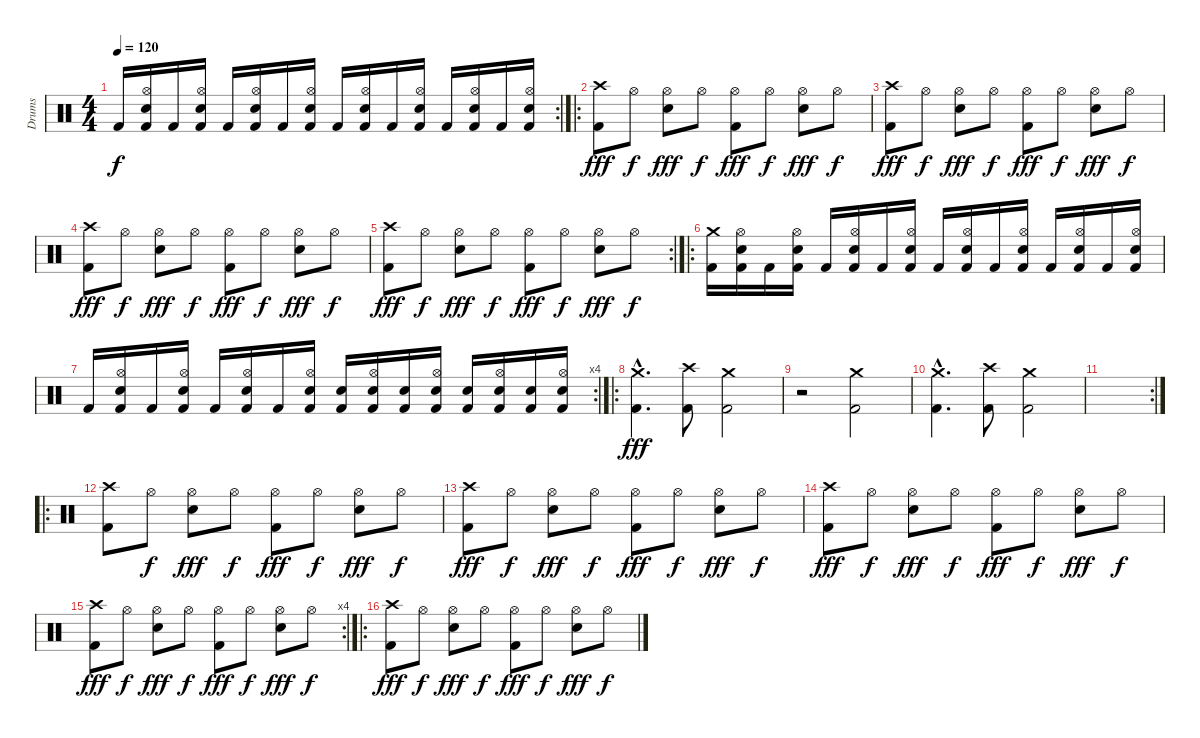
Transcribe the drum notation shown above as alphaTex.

\track ("Drums" "Drums") {instrument percussion}
\staff {score}
\articulation defaults
\rc 2
\ts (4 4)
\tempo 120
\clef neutral
\ks c "Kick (hit) 2".16{dy f}
("Hi-Hat (open)" "Electric Snare (hit)" "Kick (hit) 2").16 "Kick (hit) 2".16 ("Hi-Hat (open)" "Electric Snare (hit)" "Kick (hit) 2").16 "Kick (hit) 2".16 ("Hi-Hat (open)" "Electric Snare (hit)" "Kick (hit) 2").16 "Kick (hit) 2".16 ("Hi-Hat (open)" "Electric Snare (hit)" "Kick (hit) 2").16 "Kick (hit) 2".16 ("Hi-Hat (open)" "Electric Snare (hit)" "Kick (hit) 2").16 "Kick (hit) 2".16 ("Hi-Hat (open)" "Electric Snare (hit)" "Kick (hit) 2").16 "Kick (hit) 2".16 ("Hi-Hat (open)" "Electric Snare (hit)" "Kick (hit) 2").16 "Kick (hit) 2".16 ("Hi-Hat (open)" "Electric Snare (hit)" "Kick (hit) 2").16 |
\ro
("Crash high (hit)" "Kick (hit) 2").8{dy fff} "Hi-Hat (open)".8{dy f} ("Hi-Hat (open)" "Electric Snare (hit)").8{dy fff} "Hi-Hat (open)".8{dy f} ("Hi-Hat (open)" "Kick (hit) 2").8{dy fff} "Hi-Hat (open)".8{dy f} ("Hi-Hat (open)" "Electric Snare (hit)").8{dy fff} "Hi-Hat (open)".8{dy f} |
("Crash high (hit)" "Kick (hit) 2").8{dy fff} "Hi-Hat (open)".8{dy f} ("Hi-Hat (open)" "Electric Snare (hit)").8{dy fff} "Hi-Hat (open)".8{dy f} ("Hi-Hat (open)" "Kick (hit) 2").8{dy fff} "Hi-Hat (open)".8{dy f} ("Hi-Hat (open)" "Electric Snare (hit)").8{dy fff} "Hi-Hat (open)".8{dy f} |
("Crash high (hit)" "Kick (hit) 2").8{dy fff} "Hi-Hat (open)".8{dy f} ("Hi-Hat (open)" "Electric Snare (hit)").8{dy fff} "Hi-Hat (open)".8{dy f} ("Hi-Hat (open)" "Kick (hit) 2").8{dy fff} "Hi-Hat (open)".8{dy f} ("Hi-Hat (open)" "Electric Snare (hit)").8{dy fff} "Hi-Hat (open)".8{dy f} |
\rc 2
("Crash high (hit)" "Kick (hit) 2").8{dy fff} "Hi-Hat (open)".8{dy f} ("Hi-Hat (open)" "Electric Snare (hit)").8{dy fff} "Hi-Hat (open)".8{dy f} ("Hi-Hat (open)" "Kick (hit) 2").8{dy fff} "Hi-Hat (open)".8{dy f} ("Hi-Hat (open)" "Electric Snare (hit)").8{dy fff} "Hi-Hat (open)".8{dy f} |
\ro
("Crash medium (hit)" "Kick (hit) 2").16 ("Hi-Hat (open)" "Electric Snare (hit)" "Kick (hit) 2").16 "Kick (hit) 2".16 ("Hi-Hat (open)" "Electric Snare (hit)" "Kick (hit) 2").16 "Kick (hit) 2".16 ("Hi-Hat (open)" "Electric Snare (hit)" "Kick (hit) 2").16 "Kick (hit) 2".16 ("Hi-Hat (open)" "Electric Snare (hit)" "Kick (hit) 2").16 "Kick (hit) 2".16 ("Hi-Hat (open)" "Electric Snare (hit)" "Kick (hit) 2").16 "Kick (hit) 2".16 ("Hi-Hat (open)" "Electric Snare (hit)" "Kick (hit) 2").16 "Kick (hit) 2".16 ("Hi-Hat (open)" "Electric Snare (hit)" "Kick (hit) 2").16 "Kick (hit) 2".16 ("Hi-Hat (open)" "Electric Snare (hit)" "Kick (hit) 2").16 |
\rc 4 "Kick (hit) 2".16
("Hi-Hat (open)" "Electric Snare (hit)" "Kick (hit) 2").16 "Kick (hit) 2".16 ("Hi-Hat (open)" "Electric Snare (hit)" "Kick (hit) 2").16 "Kick (hit) 2".16 ("Hi-Hat (open)" "Electric Snare (hit)" "Kick (hit) 2").16 "Kick (hit) 2".16 ("Hi-Hat (open)" "Electric Snare (hit)" "Kick (hit) 2").16 ("Electric Snare (hit)" "Kick (hit) 2").16 ("Hi-Hat (open)" "Electric Snare (hit)" "Kick (hit) 2").16 ("Electric Snare (hit)" "Kick (hit) 2").16 ("Hi-Hat (open)" "Electric Snare (hit)" "Kick (hit) 2").16 ("Electric Snare (hit)" "Kick (hit) 2").16 ("Hi-Hat (open)" "Electric Snare (hit)" "Kick (hit) 2").16 ("Electric Snare (hit)" "Kick (hit) 2").16 ("Hi-Hat (open)" "Electric Snare (hit)" "Kick (hit) 2").16 |
\ro
("Crash medium (hit)"{hac} "Kick (hit) 2"{hac}).4{d dy fff} ("Crash high (hit)" "Kick (hit) 2").8 ("Crash medium (hit)" "Kick (hit) 2").2 |
r.2 ("Crash medium (hit)" "Kick (hit) 2").2 |
("Crash medium (hit)"{hac} "Kick (hit) 2"{hac}).4{d} ("Crash high (hit)" "Kick (hit) 2").8 ("Crash medium (hit)" "Kick (hit) 2").2 |
\rc 2
|
\ro
("Crash high (hit)" "Kick (hit) 2").8 "Hi-Hat (open)".8{dy f} ("Hi-Hat (open)" "Electric Snare (hit)").8{dy fff} "Hi-Hat (open)".8{dy f} ("Hi-Hat (open)" "Kick (hit) 2").8{dy fff} "Hi-Hat (open)".8{dy f} ("Hi-Hat (open)" "Electric Snare (hit)").8{dy fff} "Hi-Hat (open)".8{dy f} |
("Crash high (hit)" "Kick (hit) 2").8{dy fff} "Hi-Hat (open)".8{dy f} ("Hi-Hat (open)" "Electric Snare (hit)").8{dy fff} "Hi-Hat (open)".8{dy f} ("Hi-Hat (open)" "Kick (hit) 2").8{dy fff} "Hi-Hat (open)".8{dy f} ("Hi-Hat (open)" "Electric Snare (hit)").8{dy fff} "Hi-Hat (open)".8{dy f} |
("Crash high (hit)" "Kick (hit) 2").8{dy fff} "Hi-Hat (open)".8{dy f} ("Hi-Hat (open)" "Electric Snare (hit)").8{dy fff} "Hi-Hat (open)".8{dy f} ("Hi-Hat (open)" "Kick (hit) 2").8{dy fff} "Hi-Hat (open)".8{dy f} ("Hi-Hat (open)" "Electric Snare (hit)").8{dy fff} "Hi-Hat (open)".8{dy f} |
\rc 4
("Crash high (hit)" "Kick (hit) 2").8{dy fff} "Hi-Hat (open)".8{dy f} ("Hi-Hat (open)" "Electric Snare (hit)").8{dy fff} "Hi-Hat (open)".8{dy f} ("Hi-Hat (open)" "Kick (hit) 2").8{dy fff} "Hi-Hat (open)".8{dy f} ("Hi-Hat (open)" "Electric Snare (hit)").8{dy fff} "Hi-Hat (open)".8{dy f} |
\ro
("Crash high (hit)" "Kick (hit) 2").8{dy fff} "Hi-Hat (open)".8{dy f} ("Hi-Hat (open)" "Electric Snare (hit)").8{dy fff} "Hi-Hat (open)".8{dy f} ("Hi-Hat (open)" "Kick (hit) 2").8{dy fff} "Hi-Hat (open)".8{dy f} ("Hi-Hat (open)" "Electric Snare (hit)").8{dy fff} "Hi-Hat (open)".8{dy f}
